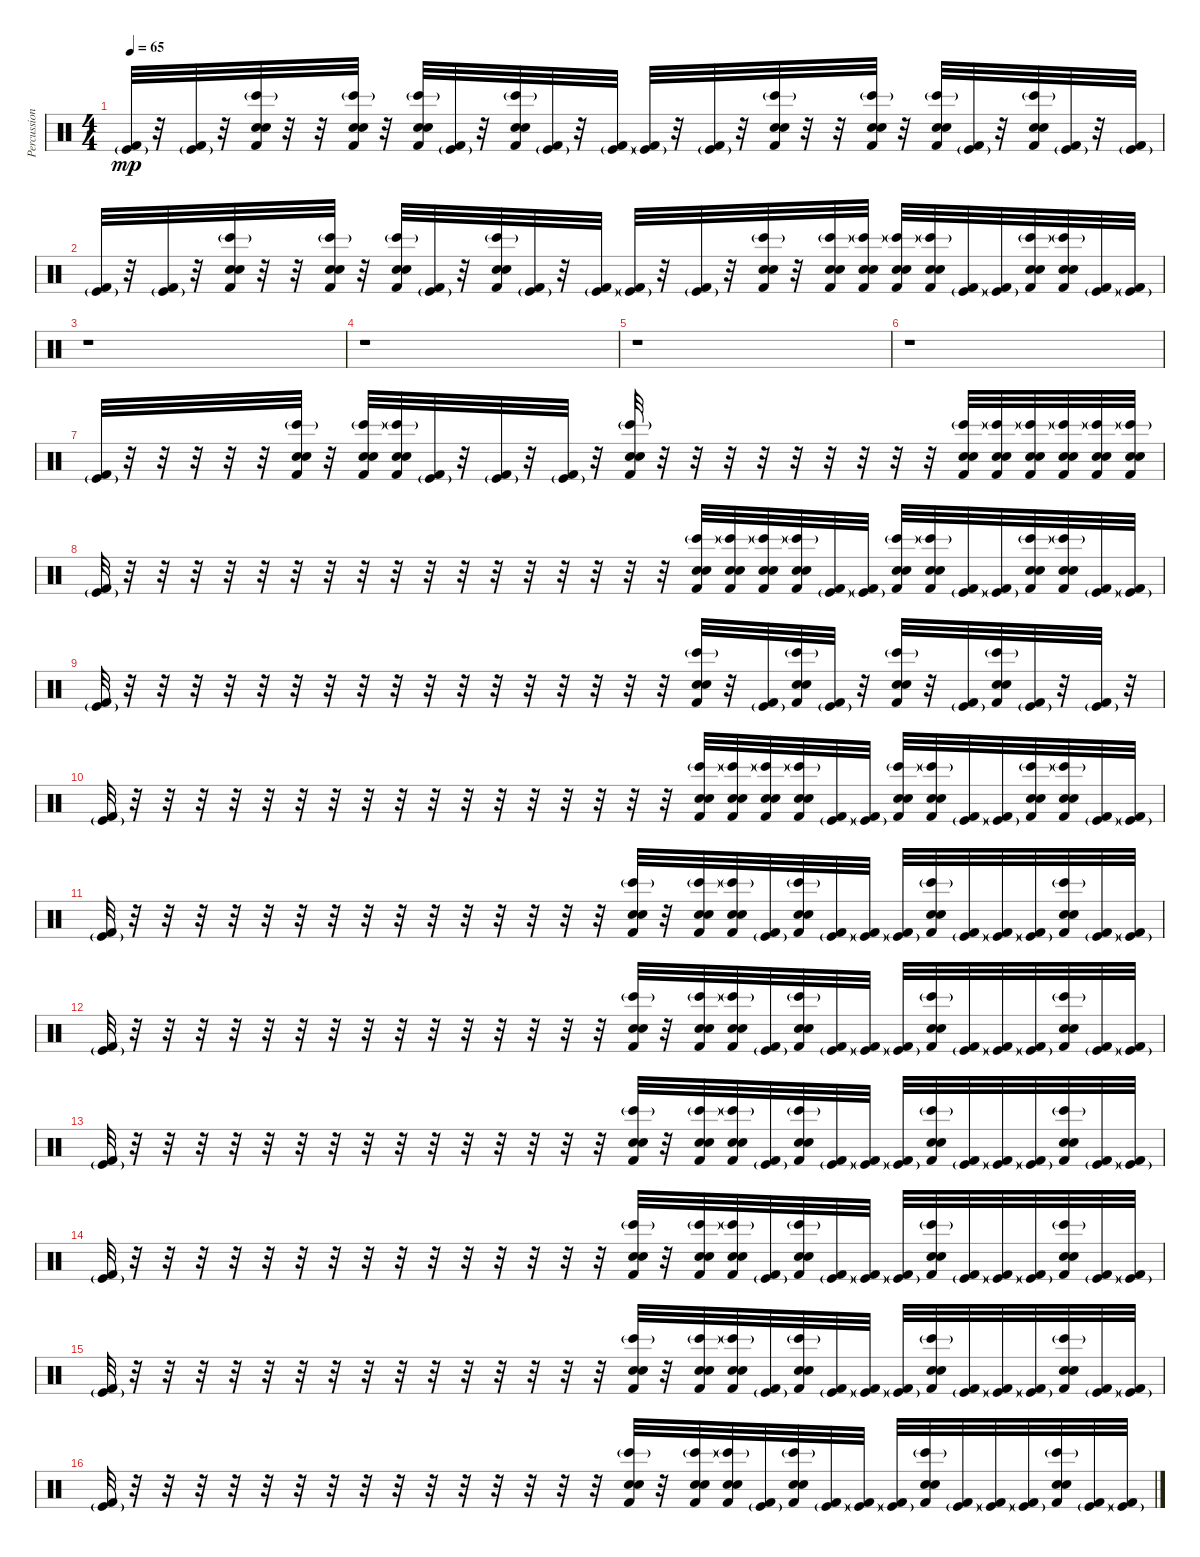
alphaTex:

\track ("Percussion 3" "Percussion") {instrument percussion}
\staff {score}
\articulation defaults
\ts (4 4)
\tempo 65
\clef neutral
\ks c
("Kick (hit)"{g} "Kick (hit) 2").32{dy mp} r.32 ("Kick (hit)"{g} "Kick (hit) 2").32 r.32 ("Bongo High (hit)"{g} "Snare (hit) 2" "Electric Snare (hit)" "Kick (hit) 2").32 r.32 r.32 ("Bongo High (hit)"{g} "Snare (hit) 2" "Electric Snare (hit)" "Kick (hit) 2").32 r.32 ("Bongo High (hit)"{g} "Snare (hit) 2" "Electric Snare (hit)" "Kick (hit) 2").32 ("Kick (hit)"{g} "Kick (hit) 2").32 r.32 ("Bongo High (hit)"{g} "Snare (hit) 2" "Electric Snare (hit)" "Kick (hit) 2").32 ("Kick (hit)"{g} "Kick (hit) 2").32 r.32 ("Kick (hit)"{g} "Kick (hit) 2").32 ("Kick (hit)"{g} "Kick (hit) 2").32 r.32 ("Kick (hit)"{g} "Kick (hit) 2").32 r.32 ("Bongo High (hit)"{g} "Snare (hit) 2" "Electric Snare (hit)" "Kick (hit) 2").32 r.32 r.32 ("Bongo High (hit)"{g} "Snare (hit) 2" "Electric Snare (hit)" "Kick (hit) 2").32 r.32 ("Bongo High (hit)"{g} "Snare (hit) 2" "Electric Snare (hit)" "Kick (hit) 2").32 ("Kick (hit)"{g} "Kick (hit) 2").32 r.32 ("Bongo High (hit)"{g} "Snare (hit) 2" "Electric Snare (hit)" "Kick (hit) 2").32 ("Kick (hit)"{g} "Kick (hit) 2").32 r.32 ("Kick (hit)"{g} "Kick (hit) 2").32 |
("Kick (hit)"{g} "Kick (hit) 2").32 r.32 ("Kick (hit)"{g} "Kick (hit) 2").32 r.32 ("Bongo High (hit)"{g} "Snare (hit) 2" "Electric Snare (hit)" "Kick (hit) 2").32 r.32 r.32 ("Bongo High (hit)"{g} "Snare (hit) 2" "Electric Snare (hit)" "Kick (hit) 2").32 r.32 ("Bongo High (hit)"{g} "Snare (hit) 2" "Electric Snare (hit)" "Kick (hit) 2").32 ("Kick (hit)"{g} "Kick (hit) 2").32 r.32 ("Bongo High (hit)"{g} "Snare (hit) 2" "Electric Snare (hit)" "Kick (hit) 2").32 ("Kick (hit)"{g} "Kick (hit) 2").32 r.32 ("Kick (hit)"{g} "Kick (hit) 2").32 ("Kick (hit)"{g} "Kick (hit) 2").32 r.32 ("Kick (hit)"{g} "Kick (hit) 2").32 r.32 ("Bongo High (hit)"{g} "Snare (hit) 2" "Electric Snare (hit)" "Kick (hit) 2").32 r.32 ("Bongo High (hit)"{g} "Snare (hit) 2" "Electric Snare (hit)" "Kick (hit) 2").32 ("Bongo High (hit)"{g} "Snare (hit) 2" "Electric Snare (hit)" "Kick (hit) 2").32 ("Bongo High (hit)"{g} "Snare (hit) 2" "Electric Snare (hit)" "Kick (hit) 2").32 ("Bongo High (hit)"{g} "Snare (hit) 2" "Electric Snare (hit)" "Kick (hit) 2").32 ("Kick (hit)"{g} "Kick (hit) 2").32 ("Kick (hit)"{g} "Kick (hit) 2").32 ("Bongo High (hit)"{g} "Snare (hit) 2" "Electric Snare (hit)" "Kick (hit) 2").32 ("Bongo High (hit)"{g} "Snare (hit) 2" "Electric Snare (hit)" "Kick (hit) 2").32 ("Kick (hit)"{g} "Kick (hit) 2").32 ("Kick (hit)"{g} "Kick (hit) 2").32 |
\section ("" "")
r.1 |
r.1 |
r.1 |
r.1 |
\section ("" "")
("Kick (hit)"{g} "Kick (hit) 2").32 r.32 r.32 r.32 r.32 r.32 ("Bongo High (hit)"{g} "Snare (hit) 2" "Electric Snare (hit)" "Kick (hit) 2").32 r.32 ("Bongo High (hit)"{g} "Snare (hit) 2" "Electric Snare (hit)" "Kick (hit) 2").32 ("Bongo High (hit)"{g} "Snare (hit) 2" "Electric Snare (hit)" "Kick (hit) 2").32 ("Kick (hit)"{g} "Kick (hit) 2").32 r.32 ("Kick (hit)"{g} "Kick (hit) 2").32 r.32 ("Kick (hit)"{g} "Kick (hit) 2").32 r.32 ("Bongo High (hit)"{g} "Snare (hit) 2" "Electric Snare (hit)" "Kick (hit) 2").32 r.32 r.32 r.32 r.32 r.32 r.32 r.32 r.32 r.32 ("Bongo High (hit)"{g} "Snare (hit) 2" "Electric Snare (hit)" "Kick (hit) 2").32 ("Bongo High (hit)"{g} "Snare (hit) 2" "Electric Snare (hit)" "Kick (hit) 2").32 ("Bongo High (hit)"{g} "Snare (hit) 2" "Electric Snare (hit)" "Kick (hit) 2").32 ("Bongo High (hit)"{g} "Snare (hit) 2" "Electric Snare (hit)" "Kick (hit) 2").32 ("Bongo High (hit)"{g} "Snare (hit) 2" "Electric Snare (hit)" "Kick (hit) 2").32 ("Bongo High (hit)"{g} "Snare (hit) 2" "Electric Snare (hit)" "Kick (hit) 2").32 |
("Kick (hit)"{g} "Kick (hit) 2").32 r.32 r.32 r.32 r.32 r.32 r.32 r.32 r.32 r.32 r.32 r.32 r.32 r.32 r.32 r.32 r.32 r.32 ("Bongo High (hit)"{g} "Snare (hit) 2" "Electric Snare (hit)" "Kick (hit) 2").32 ("Bongo High (hit)"{g} "Snare (hit) 2" "Electric Snare (hit)" "Kick (hit) 2").32 ("Bongo High (hit)"{g} "Snare (hit) 2" "Electric Snare (hit)" "Kick (hit) 2").32 ("Bongo High (hit)"{g} "Snare (hit) 2" "Electric Snare (hit)" "Kick (hit) 2").32 ("Kick (hit)"{g} "Kick (hit) 2").32 ("Kick (hit)"{g} "Kick (hit) 2").32 ("Bongo High (hit)"{g} "Snare (hit) 2" "Electric Snare (hit)" "Kick (hit) 2").32 ("Bongo High (hit)"{g} "Snare (hit) 2" "Electric Snare (hit)" "Kick (hit) 2").32 ("Kick (hit)"{g} "Kick (hit) 2").32 ("Kick (hit)"{g} "Kick (hit) 2").32 ("Bongo High (hit)"{g} "Snare (hit) 2" "Electric Snare (hit)" "Kick (hit) 2").32 ("Bongo High (hit)"{g} "Snare (hit) 2" "Electric Snare (hit)" "Kick (hit) 2").32 ("Kick (hit)"{g} "Kick (hit) 2").32 ("Kick (hit)"{g} "Kick (hit) 2").32 |
("Kick (hit)"{g} "Kick (hit) 2").32 r.32 r.32 r.32 r.32 r.32 r.32 r.32 r.32 r.32 r.32 r.32 r.32 r.32 r.32 r.32 r.32 r.32 ("Bongo High (hit)"{g} "Snare (hit) 2" "Electric Snare (hit)" "Kick (hit) 2").32 r.32 ("Kick (hit)"{g} "Kick (hit) 2").32 ("Bongo High (hit)"{g} "Snare (hit) 2" "Electric Snare (hit)" "Kick (hit) 2").32 ("Kick (hit)"{g} "Kick (hit) 2").32 r.32 ("Bongo High (hit)"{g} "Snare (hit) 2" "Electric Snare (hit)" "Kick (hit) 2").32 r.32 ("Kick (hit)"{g} "Kick (hit) 2").32 ("Bongo High (hit)"{g} "Snare (hit) 2" "Electric Snare (hit)" "Kick (hit) 2").32 ("Kick (hit)"{g} "Kick (hit) 2").32 r.32 ("Kick (hit)"{g} "Kick (hit) 2").32 r.32 |
("Kick (hit)"{g} "Kick (hit) 2").32 r.32 r.32 r.32 r.32 r.32 r.32 r.32 r.32 r.32 r.32 r.32 r.32 r.32 r.32 r.32 r.32 r.32 ("Bongo High (hit)"{g} "Snare (hit) 2" "Electric Snare (hit)" "Kick (hit) 2").32 ("Bongo High (hit)"{g} "Snare (hit) 2" "Electric Snare (hit)" "Kick (hit) 2").32 ("Bongo High (hit)"{g} "Snare (hit) 2" "Electric Snare (hit)" "Kick (hit) 2").32 ("Bongo High (hit)"{g} "Snare (hit) 2" "Electric Snare (hit)" "Kick (hit) 2").32 ("Kick (hit)"{g} "Kick (hit) 2").32 ("Kick (hit)"{g} "Kick (hit) 2").32 ("Bongo High (hit)"{g} "Snare (hit) 2" "Electric Snare (hit)" "Kick (hit) 2").32 ("Bongo High (hit)"{g} "Snare (hit) 2" "Electric Snare (hit)" "Kick (hit) 2").32 ("Kick (hit)"{g} "Kick (hit) 2").32 ("Kick (hit)"{g} "Kick (hit) 2").32 ("Bongo High (hit)"{g} "Snare (hit) 2" "Electric Snare (hit)" "Kick (hit) 2").32 ("Bongo High (hit)"{g} "Snare (hit) 2" "Electric Snare (hit)" "Kick (hit) 2").32 ("Kick (hit)"{g} "Kick (hit) 2").32 ("Kick (hit)"{g} "Kick (hit) 2").32 |
\section ("" "")
("Kick (hit)"{g} "Kick (hit) 2").32 r.32 r.32 r.32 r.32 r.32 r.32 r.32 r.32 r.32 r.32 r.32 r.32 r.32 r.32 r.32 ("Bongo High (hit)"{g} "Snare (hit) 2" "Electric Snare (hit)" "Kick (hit) 2").32 r.32 ("Bongo High (hit)"{g} "Snare (hit) 2" "Electric Snare (hit)" "Kick (hit) 2").32 ("Bongo High (hit)"{g} "Snare (hit) 2" "Electric Snare (hit)" "Kick (hit) 2").32 ("Kick (hit)"{g} "Kick (hit) 2").32 ("Bongo High (hit)"{g} "Snare (hit) 2" "Electric Snare (hit)" "Kick (hit) 2").32 ("Kick (hit)"{g} "Kick (hit) 2").32 ("Kick (hit)"{g} "Kick (hit) 2").32 ("Kick (hit)"{g} "Kick (hit) 2").32 ("Bongo High (hit)"{g} "Snare (hit) 2" "Electric Snare (hit)" "Kick (hit) 2").32 ("Kick (hit)"{g} "Kick (hit) 2").32 ("Kick (hit)"{g} "Kick (hit) 2").32 ("Kick (hit)"{g} "Kick (hit) 2").32 ("Bongo High (hit)"{g} "Snare (hit) 2" "Electric Snare (hit)" "Kick (hit) 2").32 ("Kick (hit)"{g} "Kick (hit) 2").32 ("Kick (hit)"{g} "Kick (hit) 2").32 |
("Kick (hit)"{g} "Kick (hit) 2").32 r.32 r.32 r.32 r.32 r.32 r.32 r.32 r.32 r.32 r.32 r.32 r.32 r.32 r.32 r.32 ("Bongo High (hit)"{g} "Snare (hit) 2" "Electric Snare (hit)" "Kick (hit) 2").32 r.32 ("Bongo High (hit)"{g} "Snare (hit) 2" "Electric Snare (hit)" "Kick (hit) 2").32 ("Bongo High (hit)"{g} "Snare (hit) 2" "Electric Snare (hit)" "Kick (hit) 2").32 ("Kick (hit)"{g} "Kick (hit) 2").32 ("Bongo High (hit)"{g} "Snare (hit) 2" "Electric Snare (hit)" "Kick (hit) 2").32 ("Kick (hit)"{g} "Kick (hit) 2").32 ("Kick (hit)"{g} "Kick (hit) 2").32 ("Kick (hit)"{g} "Kick (hit) 2").32 ("Bongo High (hit)"{g} "Snare (hit) 2" "Electric Snare (hit)" "Kick (hit) 2").32 ("Kick (hit)"{g} "Kick (hit) 2").32 ("Kick (hit)"{g} "Kick (hit) 2").32 ("Kick (hit)"{g} "Kick (hit) 2").32 ("Bongo High (hit)"{g} "Snare (hit) 2" "Electric Snare (hit)" "Kick (hit) 2").32 ("Kick (hit)"{g} "Kick (hit) 2").32 ("Kick (hit)"{g} "Kick (hit) 2").32 |
("Kick (hit)"{g} "Kick (hit) 2").32 r.32 r.32 r.32 r.32 r.32 r.32 r.32 r.32 r.32 r.32 r.32 r.32 r.32 r.32 r.32 ("Bongo High (hit)"{g} "Snare (hit) 2" "Electric Snare (hit)" "Kick (hit) 2").32 r.32 ("Bongo High (hit)"{g} "Snare (hit) 2" "Electric Snare (hit)" "Kick (hit) 2").32 ("Bongo High (hit)"{g} "Snare (hit) 2" "Electric Snare (hit)" "Kick (hit) 2").32 ("Kick (hit)"{g} "Kick (hit) 2").32 ("Bongo High (hit)"{g} "Snare (hit) 2" "Electric Snare (hit)" "Kick (hit) 2").32 ("Kick (hit)"{g} "Kick (hit) 2").32 ("Kick (hit)"{g} "Kick (hit) 2").32 ("Kick (hit)"{g} "Kick (hit) 2").32 ("Bongo High (hit)"{g} "Snare (hit) 2" "Electric Snare (hit)" "Kick (hit) 2").32 ("Kick (hit)"{g} "Kick (hit) 2").32 ("Kick (hit)"{g} "Kick (hit) 2").32 ("Kick (hit)"{g} "Kick (hit) 2").32 ("Bongo High (hit)"{g} "Snare (hit) 2" "Electric Snare (hit)" "Kick (hit) 2").32 ("Kick (hit)"{g} "Kick (hit) 2").32 ("Kick (hit)"{g} "Kick (hit) 2").32 |
("Kick (hit)"{g} "Kick (hit) 2").32 r.32 r.32 r.32 r.32 r.32 r.32 r.32 r.32 r.32 r.32 r.32 r.32 r.32 r.32 r.32 ("Bongo High (hit)"{g} "Snare (hit) 2" "Electric Snare (hit)" "Kick (hit) 2").32 r.32 ("Bongo High (hit)"{g} "Snare (hit) 2" "Electric Snare (hit)" "Kick (hit) 2").32 ("Bongo High (hit)"{g} "Snare (hit) 2" "Electric Snare (hit)" "Kick (hit) 2").32 ("Kick (hit)"{g} "Kick (hit) 2").32 ("Bongo High (hit)"{g} "Snare (hit) 2" "Electric Snare (hit)" "Kick (hit) 2").32 ("Kick (hit)"{g} "Kick (hit) 2").32 ("Kick (hit)"{g} "Kick (hit) 2").32 ("Kick (hit)"{g} "Kick (hit) 2").32 ("Bongo High (hit)"{g} "Snare (hit) 2" "Electric Snare (hit)" "Kick (hit) 2").32 ("Kick (hit)"{g} "Kick (hit) 2").32 ("Kick (hit)"{g} "Kick (hit) 2").32 ("Kick (hit)"{g} "Kick (hit) 2").32 ("Bongo High (hit)"{g} "Snare (hit) 2" "Electric Snare (hit)" "Kick (hit) 2").32 ("Kick (hit)"{g} "Kick (hit) 2").32 ("Kick (hit)"{g} "Kick (hit) 2").32 |
("Kick (hit)"{g} "Kick (hit) 2").32 r.32 r.32 r.32 r.32 r.32 r.32 r.32 r.32 r.32 r.32 r.32 r.32 r.32 r.32 r.32 ("Bongo High (hit)"{g} "Snare (hit) 2" "Electric Snare (hit)" "Kick (hit) 2").32 r.32 ("Bongo High (hit)"{g} "Snare (hit) 2" "Electric Snare (hit)" "Kick (hit) 2").32 ("Bongo High (hit)"{g} "Snare (hit) 2" "Electric Snare (hit)" "Kick (hit) 2").32 ("Kick (hit)"{g} "Kick (hit) 2").32 ("Bongo High (hit)"{g} "Snare (hit) 2" "Electric Snare (hit)" "Kick (hit) 2").32 ("Kick (hit)"{g} "Kick (hit) 2").32 ("Kick (hit)"{g} "Kick (hit) 2").32 ("Kick (hit)"{g} "Kick (hit) 2").32 ("Bongo High (hit)"{g} "Snare (hit) 2" "Electric Snare (hit)" "Kick (hit) 2").32 ("Kick (hit)"{g} "Kick (hit) 2").32 ("Kick (hit)"{g} "Kick (hit) 2").32 ("Kick (hit)"{g} "Kick (hit) 2").32 ("Bongo High (hit)"{g} "Snare (hit) 2" "Electric Snare (hit)" "Kick (hit) 2").32 ("Kick (hit)"{g} "Kick (hit) 2").32 ("Kick (hit)"{g} "Kick (hit) 2").32 |
("Kick (hit)"{g} "Kick (hit) 2").32 r.32 r.32 r.32 r.32 r.32 r.32 r.32 r.32 r.32 r.32 r.32 r.32 r.32 r.32 r.32 ("Bongo High (hit)"{g} "Snare (hit) 2" "Electric Snare (hit)" "Kick (hit) 2").32 r.32 ("Bongo High (hit)"{g} "Snare (hit) 2" "Electric Snare (hit)" "Kick (hit) 2").32 ("Bongo High (hit)"{g} "Snare (hit) 2" "Electric Snare (hit)" "Kick (hit) 2").32 ("Kick (hit)"{g} "Kick (hit) 2").32 ("Bongo High (hit)"{g} "Snare (hit) 2" "Electric Snare (hit)" "Kick (hit) 2").32 ("Kick (hit)"{g} "Kick (hit) 2").32 ("Kick (hit)"{g} "Kick (hit) 2").32 ("Kick (hit)"{g} "Kick (hit) 2").32 ("Bongo High (hit)"{g} "Snare (hit) 2" "Electric Snare (hit)" "Kick (hit) 2").32 ("Kick (hit)"{g} "Kick (hit) 2").32 ("Kick (hit)"{g} "Kick (hit) 2").32 ("Kick (hit)"{g} "Kick (hit) 2").32 ("Bongo High (hit)"{g} "Snare (hit) 2" "Electric Snare (hit)" "Kick (hit) 2").32 ("Kick (hit)"{g} "Kick (hit) 2").32 ("Kick (hit)"{g} "Kick (hit) 2").32
